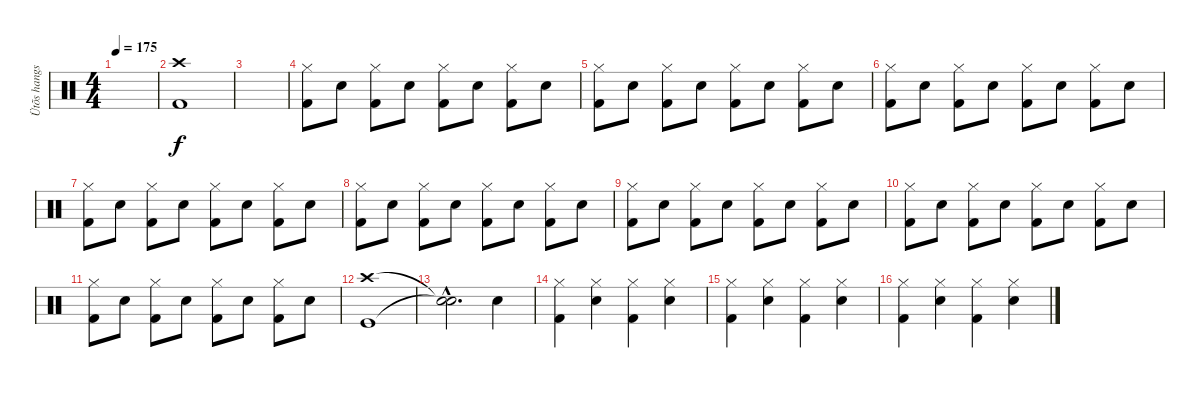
\track ("Ütõs hangszer" "Ütõs hangs") {instrument percussion}
\staff {score}
\articulation defaults
\ts (4 4)
\tempo 175
\clef neutral
\ks c
|
("Crash high (hit)" "Kick (hit) 2").1 |
|
("Hi-Hat (closed)" "Kick (hit) 2").8 "Electric Snare (hit)".8 ("Hi-Hat (closed)" "Kick (hit) 2").8 "Electric Snare (hit)".8 ("Hi-Hat (closed)" "Kick (hit) 2").8 "Electric Snare (hit)".8 ("Hi-Hat (closed)" "Kick (hit) 2").8 "Electric Snare (hit)".8 |
("Hi-Hat (closed)" "Kick (hit) 2").8 "Electric Snare (hit)".8 ("Hi-Hat (closed)" "Kick (hit) 2").8 "Electric Snare (hit)".8 ("Hi-Hat (closed)" "Kick (hit) 2").8 "Electric Snare (hit)".8 ("Hi-Hat (closed)" "Kick (hit) 2").8 "Electric Snare (hit)".8 |
("Hi-Hat (closed)" "Kick (hit) 2").8 "Electric Snare (hit)".8 ("Hi-Hat (closed)" "Kick (hit) 2").8 "Electric Snare (hit)".8 ("Hi-Hat (closed)" "Kick (hit) 2").8 "Electric Snare (hit)".8 ("Hi-Hat (closed)" "Kick (hit) 2").8 "Electric Snare (hit)".8 |
("Hi-Hat (closed)" "Kick (hit) 2").8 "Electric Snare (hit)".8 ("Hi-Hat (closed)" "Kick (hit) 2").8 "Electric Snare (hit)".8 ("Hi-Hat (closed)" "Kick (hit) 2").8 "Electric Snare (hit)".8 ("Hi-Hat (closed)" "Kick (hit) 2").8 "Electric Snare (hit)".8 |
("Hi-Hat (closed)" "Kick (hit) 2").8 "Electric Snare (hit)".8 ("Hi-Hat (closed)" "Kick (hit) 2").8 "Electric Snare (hit)".8 ("Hi-Hat (closed)" "Kick (hit) 2").8 "Electric Snare (hit)".8 ("Hi-Hat (closed)" "Kick (hit) 2").8 "Electric Snare (hit)".8 |
("Hi-Hat (closed)" "Kick (hit) 2").8 "Electric Snare (hit)".8 ("Hi-Hat (closed)" "Kick (hit) 2").8 "Electric Snare (hit)".8 ("Hi-Hat (closed)" "Kick (hit) 2").8 "Electric Snare (hit)".8 ("Hi-Hat (closed)" "Kick (hit) 2").8 "Electric Snare (hit)".8 |
("Hi-Hat (closed)" "Kick (hit) 2").8 "Electric Snare (hit)".8 ("Hi-Hat (closed)" "Kick (hit) 2").8 "Electric Snare (hit)".8 ("Hi-Hat (closed)" "Kick (hit) 2").8 "Electric Snare (hit)".8 ("Hi-Hat (closed)" "Kick (hit) 2").8 "Electric Snare (hit)".8 |
("Hi-Hat (closed)" "Kick (hit) 2").8 "Electric Snare (hit)".8 ("Hi-Hat (closed)" "Kick (hit) 2").8 "Electric Snare (hit)".8 ("Hi-Hat (closed)" "Kick (hit) 2").8 "Electric Snare (hit)".8 ("Hi-Hat (closed)" "Kick (hit) 2").8 "Electric Snare (hit)".8 |
("Crash high (hit)" "Kick (hit)").1 |
("Snare (hit)"{hac t} "Snare (hit)"{hac t}).2{d} "Electric Snare (hit)".4 |
("Hi-Hat (closed)" "Kick (hit) 2").4 ("Hi-Hat (closed)" "Electric Snare (hit)").4 ("Hi-Hat (closed)" "Kick (hit) 2").4 ("Hi-Hat (closed)" "Electric Snare (hit)").4 |
("Hi-Hat (closed)" "Kick (hit) 2").4 ("Hi-Hat (closed)" "Electric Snare (hit)").4 ("Hi-Hat (closed)" "Kick (hit) 2").4 ("Hi-Hat (closed)" "Electric Snare (hit)").4 |
("Hi-Hat (closed)" "Kick (hit) 2").4 ("Hi-Hat (closed)" "Electric Snare (hit)").4 ("Hi-Hat (closed)" "Kick (hit) 2").4 ("Hi-Hat (closed)" "Electric Snare (hit)").4
